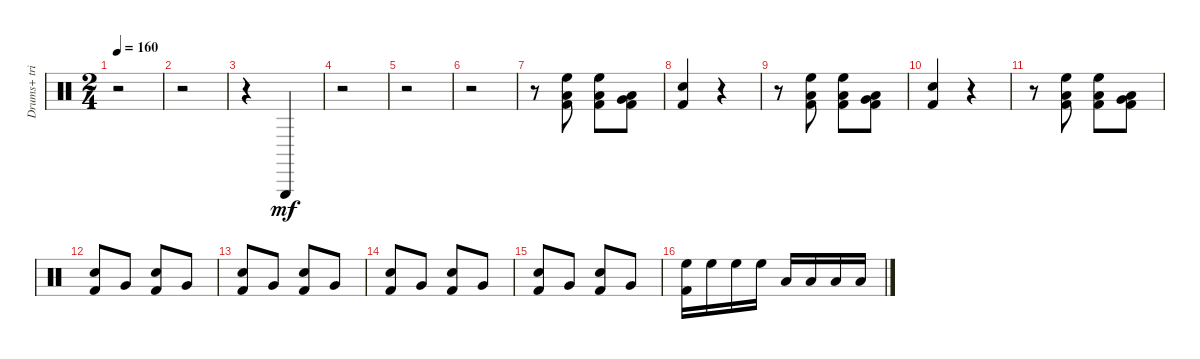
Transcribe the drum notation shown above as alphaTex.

\track ("Drums+ triangle" "Drums+ tri") {instrument percussion}
\staff {score}
\articulation defaults
\ts (2 4)
\tempo 160
\clef neutral
\ks c
r.2{dy mf} |
r.2 |
r.4 "Triangle (hit)".4 |
r.2 |
r.2 |
r.2 |
r.8 ("Kick (hit) 2" "Low Tom (hit)" "High Floor Tom (hit)").8 ("High Floor Tom (hit)" "Low Tom (hit)" "Kick (hit) 2").8 ("Low Tom (hit)" "Very Low Tom (hit)" "Kick (hit) 2").8 |
("Snare (hit) 2" "Kick (hit) 2").4 r.4 |
r.8 ("Kick (hit) 2" "Low Tom (hit)" "High Floor Tom (hit)").8 ("High Floor Tom (hit)" "Low Tom (hit)" "Kick (hit) 2").8 ("Low Tom (hit)" "Very Low Tom (hit)" "Kick (hit) 2").8 |
("Snare (hit) 2" "Kick (hit) 2").4 r.4 |
r.8 ("Kick (hit) 2" "Low Tom (hit)" "High Floor Tom (hit)").8 ("High Floor Tom (hit)" "Low Tom (hit)" "Kick (hit) 2").8 ("Low Tom (hit)" "Very Low Tom (hit)" "Kick (hit) 2").8 |
("Snare (hit) 2" "Kick (hit) 2").8 "Very Low Tom (hit)".8 ("Snare (hit) 2" "Kick (hit) 2").8 "Very Low Tom (hit)".8 |
("Snare (hit) 2" "Kick (hit) 2").8 "Very Low Tom (hit)".8 ("Snare (hit) 2" "Kick (hit) 2").8 "Very Low Tom (hit)".8 |
("Snare (hit) 2" "Kick (hit) 2").8 "Very Low Tom (hit)".8 ("Snare (hit) 2" "Kick (hit) 2").8 "Very Low Tom (hit)".8 |
("Snare (hit) 2" "Kick (hit) 2").8 "Very Low Tom (hit)".8 ("Snare (hit) 2" "Kick (hit) 2").8 "Very Low Tom (hit)".8 |
("Kick (hit) 2" "High Floor Tom (hit)").16 "High Floor Tom (hit)".16 "High Floor Tom (hit)".16 "High Floor Tom (hit)".16 "Low Tom (hit)".16 "Low Tom (hit)".16 "Low Tom (hit)".16 "Low Tom (hit)".16
